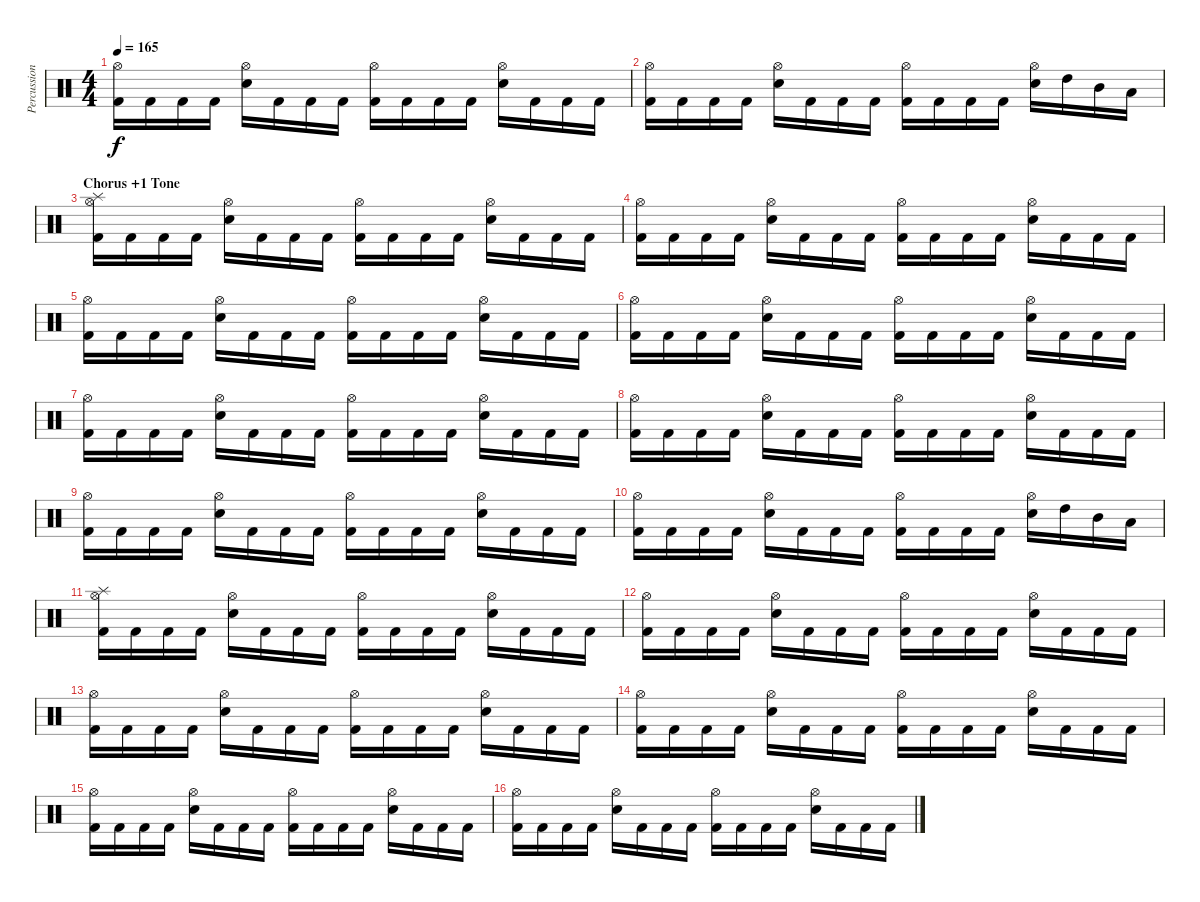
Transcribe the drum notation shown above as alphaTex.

\track ("Percussions" "Percussion") {instrument percussion}
\staff {score}
\articulation defaults
\ts (4 4)
\tempo 165
\clef neutral
\ks c
("Hi-Hat (open)" "Kick (hit) 2").16{dy f} "Kick (hit) 2".16 "Kick (hit) 2".16 "Kick (hit) 2".16 ("Hi-Hat (open)" "Electric Snare (hit)").16 "Kick (hit) 2".16 "Kick (hit) 2".16 "Kick (hit) 2".16 ("Hi-Hat (open)" "Kick (hit) 2").16 "Kick (hit) 2".16 "Kick (hit) 2".16 "Kick (hit) 2".16 ("Hi-Hat (open)" "Electric Snare (hit)").16 "Kick (hit) 2".16 "Kick (hit) 2".16 "Kick (hit) 2".16 |
("Hi-Hat (open)" "Kick (hit) 2").16 "Kick (hit) 2".16 "Kick (hit) 2".16 "Kick (hit) 2".16 ("Hi-Hat (open)" "Electric Snare (hit)").16 "Kick (hit) 2".16 "Kick (hit) 2".16 "Kick (hit) 2".16 ("Hi-Hat (open)" "Kick (hit) 2").16 "Kick (hit) 2".16 "Kick (hit) 2".16 "Kick (hit) 2".16 ("Hi-Hat (open)" "Electric Snare (hit)").16 "High Tom (hit)".16 "Mid Tom (hit)".16 "Low Tom (hit)".16 |
\section ("" "Chorus +1 Tone")
("Splash (hit)" "Hi-Hat (open)" "Kick (hit) 2").16 "Kick (hit) 2".16 "Kick (hit) 2".16 "Kick (hit) 2".16 ("Hi-Hat (open)" "Electric Snare (hit)").16 "Kick (hit) 2".16 "Kick (hit) 2".16 "Kick (hit) 2".16 ("Hi-Hat (open)" "Kick (hit) 2").16 "Kick (hit) 2".16 "Kick (hit) 2".16 "Kick (hit) 2".16 ("Hi-Hat (open)" "Electric Snare (hit)").16 "Kick (hit) 2".16 "Kick (hit) 2".16 "Kick (hit) 2".16 |
("Hi-Hat (open)" "Kick (hit) 2").16 "Kick (hit) 2".16 "Kick (hit) 2".16 "Kick (hit) 2".16 ("Hi-Hat (open)" "Electric Snare (hit)").16 "Kick (hit) 2".16 "Kick (hit) 2".16 "Kick (hit) 2".16 ("Hi-Hat (open)" "Kick (hit) 2").16 "Kick (hit) 2".16 "Kick (hit) 2".16 "Kick (hit) 2".16 ("Hi-Hat (open)" "Electric Snare (hit)").16 "Kick (hit) 2".16 "Kick (hit) 2".16 "Kick (hit) 2".16 |
("Hi-Hat (open)" "Kick (hit) 2").16 "Kick (hit) 2".16 "Kick (hit) 2".16 "Kick (hit) 2".16 ("Hi-Hat (open)" "Electric Snare (hit)").16 "Kick (hit) 2".16 "Kick (hit) 2".16 "Kick (hit) 2".16 ("Hi-Hat (open)" "Kick (hit) 2").16 "Kick (hit) 2".16 "Kick (hit) 2".16 "Kick (hit) 2".16 ("Hi-Hat (open)" "Electric Snare (hit)").16 "Kick (hit) 2".16 "Kick (hit) 2".16 "Kick (hit) 2".16 |
("Hi-Hat (open)" "Kick (hit) 2").16 "Kick (hit) 2".16 "Kick (hit) 2".16 "Kick (hit) 2".16 ("Hi-Hat (open)" "Electric Snare (hit)").16 "Kick (hit) 2".16 "Kick (hit) 2".16 "Kick (hit) 2".16 ("Hi-Hat (open)" "Kick (hit) 2").16 "Kick (hit) 2".16 "Kick (hit) 2".16 "Kick (hit) 2".16 ("Hi-Hat (open)" "Electric Snare (hit)").16 "Kick (hit) 2".16 "Kick (hit) 2".16 "Kick (hit) 2".16 |
("Hi-Hat (open)" "Kick (hit) 2").16 "Kick (hit) 2".16 "Kick (hit) 2".16 "Kick (hit) 2".16 ("Hi-Hat (open)" "Electric Snare (hit)").16 "Kick (hit) 2".16 "Kick (hit) 2".16 "Kick (hit) 2".16 ("Hi-Hat (open)" "Kick (hit) 2").16 "Kick (hit) 2".16 "Kick (hit) 2".16 "Kick (hit) 2".16 ("Hi-Hat (open)" "Electric Snare (hit)").16 "Kick (hit) 2".16 "Kick (hit) 2".16 "Kick (hit) 2".16 |
("Hi-Hat (open)" "Kick (hit) 2").16 "Kick (hit) 2".16 "Kick (hit) 2".16 "Kick (hit) 2".16 ("Hi-Hat (open)" "Electric Snare (hit)").16 "Kick (hit) 2".16 "Kick (hit) 2".16 "Kick (hit) 2".16 ("Hi-Hat (open)" "Kick (hit) 2").16 "Kick (hit) 2".16 "Kick (hit) 2".16 "Kick (hit) 2".16 ("Hi-Hat (open)" "Electric Snare (hit)").16 "Kick (hit) 2".16 "Kick (hit) 2".16 "Kick (hit) 2".16 |
("Hi-Hat (open)" "Kick (hit) 2").16 "Kick (hit) 2".16 "Kick (hit) 2".16 "Kick (hit) 2".16 ("Hi-Hat (open)" "Electric Snare (hit)").16 "Kick (hit) 2".16 "Kick (hit) 2".16 "Kick (hit) 2".16 ("Hi-Hat (open)" "Kick (hit) 2").16 "Kick (hit) 2".16 "Kick (hit) 2".16 "Kick (hit) 2".16 ("Hi-Hat (open)" "Electric Snare (hit)").16 "Kick (hit) 2".16 "Kick (hit) 2".16 "Kick (hit) 2".16 |
("Hi-Hat (open)" "Kick (hit) 2").16 "Kick (hit) 2".16 "Kick (hit) 2".16 "Kick (hit) 2".16 ("Hi-Hat (open)" "Electric Snare (hit)").16 "Kick (hit) 2".16 "Kick (hit) 2".16 "Kick (hit) 2".16 ("Hi-Hat (open)" "Kick (hit) 2").16 "Kick (hit) 2".16 "Kick (hit) 2".16 "Kick (hit) 2".16 ("Hi-Hat (open)" "Electric Snare (hit)").16 "High Tom (hit)".16 "Mid Tom (hit)".16 "Low Tom (hit)".16 |
("Splash (hit)" "Hi-Hat (open)" "Kick (hit) 2").16 "Kick (hit) 2".16 "Kick (hit) 2".16 "Kick (hit) 2".16 ("Hi-Hat (open)" "Electric Snare (hit)").16 "Kick (hit) 2".16 "Kick (hit) 2".16 "Kick (hit) 2".16 ("Hi-Hat (open)" "Kick (hit) 2").16 "Kick (hit) 2".16 "Kick (hit) 2".16 "Kick (hit) 2".16 ("Hi-Hat (open)" "Electric Snare (hit)").16 "Kick (hit) 2".16 "Kick (hit) 2".16 "Kick (hit) 2".16 |
("Hi-Hat (open)" "Kick (hit) 2").16 "Kick (hit) 2".16 "Kick (hit) 2".16 "Kick (hit) 2".16 ("Hi-Hat (open)" "Electric Snare (hit)").16 "Kick (hit) 2".16 "Kick (hit) 2".16 "Kick (hit) 2".16 ("Hi-Hat (open)" "Kick (hit) 2").16 "Kick (hit) 2".16 "Kick (hit) 2".16 "Kick (hit) 2".16 ("Hi-Hat (open)" "Electric Snare (hit)").16 "Kick (hit) 2".16 "Kick (hit) 2".16 "Kick (hit) 2".16 |
("Hi-Hat (open)" "Kick (hit) 2").16 "Kick (hit) 2".16 "Kick (hit) 2".16 "Kick (hit) 2".16 ("Hi-Hat (open)" "Electric Snare (hit)").16 "Kick (hit) 2".16 "Kick (hit) 2".16 "Kick (hit) 2".16 ("Hi-Hat (open)" "Kick (hit) 2").16 "Kick (hit) 2".16 "Kick (hit) 2".16 "Kick (hit) 2".16 ("Hi-Hat (open)" "Electric Snare (hit)").16 "Kick (hit) 2".16 "Kick (hit) 2".16 "Kick (hit) 2".16 |
("Hi-Hat (open)" "Kick (hit) 2").16 "Kick (hit) 2".16 "Kick (hit) 2".16 "Kick (hit) 2".16 ("Hi-Hat (open)" "Electric Snare (hit)").16 "Kick (hit) 2".16 "Kick (hit) 2".16 "Kick (hit) 2".16 ("Hi-Hat (open)" "Kick (hit) 2").16 "Kick (hit) 2".16 "Kick (hit) 2".16 "Kick (hit) 2".16 ("Hi-Hat (open)" "Electric Snare (hit)").16 "Kick (hit) 2".16 "Kick (hit) 2".16 "Kick (hit) 2".16 |
("Hi-Hat (open)" "Kick (hit) 2").16 "Kick (hit) 2".16 "Kick (hit) 2".16 "Kick (hit) 2".16 ("Hi-Hat (open)" "Electric Snare (hit)").16 "Kick (hit) 2".16 "Kick (hit) 2".16 "Kick (hit) 2".16 ("Hi-Hat (open)" "Kick (hit) 2").16 "Kick (hit) 2".16 "Kick (hit) 2".16 "Kick (hit) 2".16 ("Hi-Hat (open)" "Electric Snare (hit)").16 "Kick (hit) 2".16 "Kick (hit) 2".16 "Kick (hit) 2".16 |
("Hi-Hat (open)" "Kick (hit) 2").16 "Kick (hit) 2".16 "Kick (hit) 2".16 "Kick (hit) 2".16 ("Hi-Hat (open)" "Electric Snare (hit)").16 "Kick (hit) 2".16 "Kick (hit) 2".16 "Kick (hit) 2".16 ("Hi-Hat (open)" "Kick (hit) 2").16 "Kick (hit) 2".16 "Kick (hit) 2".16 "Kick (hit) 2".16 ("Hi-Hat (open)" "Electric Snare (hit)").16 "Kick (hit) 2".16 "Kick (hit) 2".16 "Kick (hit) 2".16
